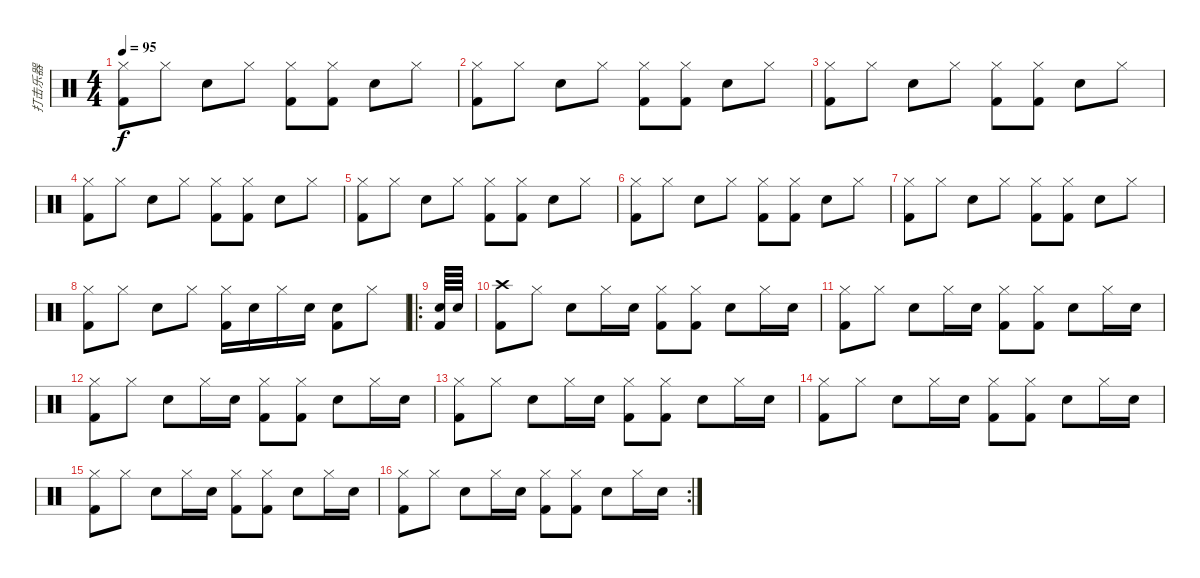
\track ("打击乐器" "打击乐器") {instrument percussion}
\staff {score}
\articulation defaults
\ts (4 4)
\tempo 95
\clef neutral
\ks c
("Hi-Hat (closed)" "Kick (hit) 2").8{dy f} "Hi-Hat (closed)".8 "Snare (hit) 2".8 "Hi-Hat (closed)".8 ("Hi-Hat (closed)" "Kick (hit) 2").8 ("Hi-Hat (closed)" "Kick (hit) 2").8 "Snare (hit) 2".8 "Hi-Hat (closed)".8 |
("Hi-Hat (closed)" "Kick (hit) 2").8 "Hi-Hat (closed)".8 "Snare (hit) 2".8 "Hi-Hat (closed)".8 ("Hi-Hat (closed)" "Kick (hit) 2").8 ("Hi-Hat (closed)" "Kick (hit) 2").8 "Snare (hit) 2".8 "Hi-Hat (closed)".8 |
("Hi-Hat (closed)" "Kick (hit) 2").8 "Hi-Hat (closed)".8 "Snare (hit) 2".8 "Hi-Hat (closed)".8 ("Hi-Hat (closed)" "Kick (hit) 2").8 ("Hi-Hat (closed)" "Kick (hit) 2").8 "Snare (hit) 2".8 "Hi-Hat (closed)".8 |
("Hi-Hat (closed)" "Kick (hit) 2").8 "Hi-Hat (closed)".8 "Snare (hit) 2".8 "Hi-Hat (closed)".8 ("Hi-Hat (closed)" "Kick (hit) 2").8 ("Hi-Hat (closed)" "Kick (hit) 2").8 "Snare (hit) 2".8 "Hi-Hat (closed)".8 |
("Hi-Hat (closed)" "Kick (hit) 2").8 "Hi-Hat (closed)".8 "Snare (hit) 2".8 "Hi-Hat (closed)".8 ("Hi-Hat (closed)" "Kick (hit) 2").8 ("Hi-Hat (closed)" "Kick (hit) 2").8 "Snare (hit) 2".8 "Hi-Hat (closed)".8 |
("Hi-Hat (closed)" "Kick (hit) 2").8 "Hi-Hat (closed)".8 "Snare (hit) 2".8 "Hi-Hat (closed)".8 ("Hi-Hat (closed)" "Kick (hit) 2").8 ("Hi-Hat (closed)" "Kick (hit) 2").8 "Snare (hit) 2".8 "Hi-Hat (closed)".8 |
("Hi-Hat (closed)" "Kick (hit) 2").8 "Hi-Hat (closed)".8 "Snare (hit) 2".8 "Hi-Hat (closed)".8 ("Hi-Hat (closed)" "Kick (hit) 2").8 ("Hi-Hat (closed)" "Kick (hit) 2").8 "Snare (hit) 2".8 "Hi-Hat (closed)".8 |
("Hi-Hat (closed)" "Kick (hit) 2").8 "Hi-Hat (closed)".8 "Snare (hit) 2".8 "Hi-Hat (closed)".8 ("Hi-Hat (closed)" "Kick (hit) 2").16 "Snare (hit) 2".16 "Hi-Hat (closed)".16 "Snare (hit) 2".16 ("Snare (hit) 2" "Kick (hit) 2").8 "Hi-Hat (closed)".8 |
\ro
("Snare (hit) 2" "Kick (hit) 2").64 "Snare (hit) 2".64 |
("Crash high (hit)" "Kick (hit) 2").8 "Hi-Hat (closed)".8 "Snare (hit) 2".8 "Hi-Hat (closed)".16 "Snare (hit) 2".16 ("Hi-Hat (closed)" "Kick (hit) 2").8 ("Hi-Hat (closed)" "Kick (hit) 2").8 "Snare (hit) 2".8 "Hi-Hat (closed)".16 "Snare (hit) 2".16 |
("Hi-Hat (closed)" "Kick (hit) 2").8 "Hi-Hat (closed)".8 "Snare (hit) 2".8 "Hi-Hat (closed)".16 "Snare (hit) 2".16 ("Hi-Hat (closed)" "Kick (hit) 2").8 ("Hi-Hat (closed)" "Kick (hit) 2").8 "Snare (hit) 2".8 "Hi-Hat (closed)".16 "Snare (hit) 2".16 |
("Hi-Hat (closed)" "Kick (hit) 2").8 "Hi-Hat (closed)".8 "Snare (hit) 2".8 "Hi-Hat (closed)".16 "Snare (hit) 2".16 ("Hi-Hat (closed)" "Kick (hit) 2").8 ("Hi-Hat (closed)" "Kick (hit) 2").8 "Snare (hit) 2".8 "Hi-Hat (closed)".16 "Snare (hit) 2".16 |
("Hi-Hat (closed)" "Kick (hit) 2").8 "Hi-Hat (closed)".8 "Snare (hit) 2".8 "Hi-Hat (closed)".16 "Snare (hit) 2".16 ("Hi-Hat (closed)" "Kick (hit) 2").8 ("Hi-Hat (closed)" "Kick (hit) 2").8 "Snare (hit) 2".8 "Hi-Hat (closed)".16 "Snare (hit) 2".16 |
("Hi-Hat (closed)" "Kick (hit) 2").8 "Hi-Hat (closed)".8 "Snare (hit) 2".8 "Hi-Hat (closed)".16 "Snare (hit) 2".16 ("Hi-Hat (closed)" "Kick (hit) 2").8 ("Hi-Hat (closed)" "Kick (hit) 2").8 "Snare (hit) 2".8 "Hi-Hat (closed)".16 "Snare (hit) 2".16 |
("Hi-Hat (closed)" "Kick (hit) 2").8 "Hi-Hat (closed)".8 "Snare (hit) 2".8 "Hi-Hat (closed)".16 "Snare (hit) 2".16 ("Hi-Hat (closed)" "Kick (hit) 2").8 ("Hi-Hat (closed)" "Kick (hit) 2").8 "Snare (hit) 2".8 "Hi-Hat (closed)".16 "Snare (hit) 2".16 |
\rc 2
("Hi-Hat (closed)" "Kick (hit) 2").8 "Hi-Hat (closed)".8 "Snare (hit) 2".8 "Hi-Hat (closed)".16 "Snare (hit) 2".16 ("Hi-Hat (closed)" "Kick (hit) 2").8 ("Hi-Hat (closed)" "Kick (hit) 2").8 "Snare (hit) 2".8 "Hi-Hat (closed)".16 "Snare (hit) 2".16
